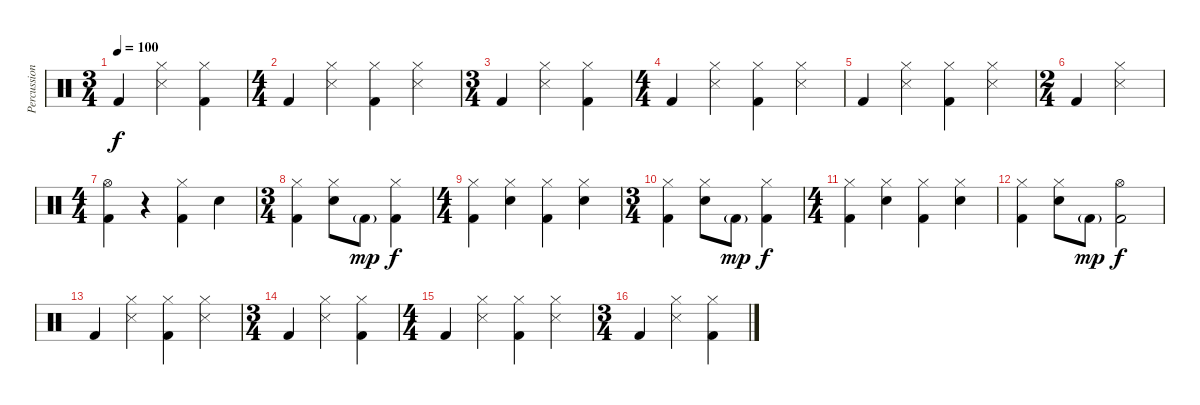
\track ("Percussion" "Percussion") {instrument percussion}
\staff {score}
\articulation defaults
\ts (3 4)
\tempo 100
\clef neutral
\ks c "Kick (hit) 2".4{dy f}
("Hi-Hat (closed)" "Snare (side stick) 3").4 ("Hi-Hat (closed)" "Kick (hit) 2").4 |
\ts (4 4)
"Kick (hit) 2".4 ("Hi-Hat (closed)" "Snare (side stick) 3").4 ("Hi-Hat (closed)" "Kick (hit) 2").4 ("Hi-Hat (closed)" "Snare (side stick) 3").4 |
\ts (3 4)
"Kick (hit) 2".4 ("Hi-Hat (closed)" "Snare (side stick) 3").4 ("Hi-Hat (closed)" "Kick (hit) 2").4 |
\ts (4 4)
"Kick (hit) 2".4 ("Hi-Hat (closed)" "Snare (side stick) 3").4 ("Hi-Hat (closed)" "Kick (hit) 2").4 ("Hi-Hat (closed)" "Snare (side stick) 3").4 |
"Kick (hit) 2".4 ("Hi-Hat (closed)" "Snare (side stick) 3").4 ("Hi-Hat (closed)" "Kick (hit) 2").4 ("Hi-Hat (closed)" "Snare (side stick) 3").4 |
\ts (2 4)
"Kick (hit) 2".4 ("Hi-Hat (closed)" "Snare (side stick) 3").4 |
\ts (4 4)
("Hi-Hat (open)" "Kick (hit) 2").4 r.4 ("Hi-Hat (closed)" "Kick (hit) 2").4 "Snare (hit) 2".4 |
\ts (3 4)
("Hi-Hat (closed)" "Kick (hit) 2").4 ("Hi-Hat (closed)" "Snare (hit) 2").8 "Kick (hit) 2"{g}.8{dy mp} ("Hi-Hat (closed)" "Kick (hit) 2").4{dy f} |
\ts (4 4)
("Hi-Hat (closed)" "Kick (hit) 2").4 ("Hi-Hat (closed)" "Snare (hit) 2").4 ("Hi-Hat (closed)" "Kick (hit) 2").4 ("Hi-Hat (closed)" "Snare (hit) 2").4 |
\ts (3 4)
("Hi-Hat (closed)" "Kick (hit) 2").4 ("Hi-Hat (closed)" "Snare (hit) 2").8 "Kick (hit) 2"{g}.8{dy mp} ("Hi-Hat (closed)" "Kick (hit) 2").4{dy f} |
\ts (4 4)
("Hi-Hat (closed)" "Kick (hit) 2").4 ("Hi-Hat (closed)" "Snare (hit) 2").4 ("Hi-Hat (closed)" "Kick (hit) 2").4 ("Hi-Hat (closed)" "Snare (hit) 2").4 |
("Hi-Hat (closed)" "Kick (hit) 2").4 ("Hi-Hat (closed)" "Snare (hit) 2").8 "Kick (hit) 2"{g}.8{dy mp} ("Hi-Hat (open)" "Kick (hit) 2").2{dy f} |
"Kick (hit) 2".4 ("Hi-Hat (closed)" "Snare (side stick) 3").4 ("Hi-Hat (closed)" "Kick (hit) 2").4 ("Hi-Hat (closed)" "Snare (side stick) 3").4 |
\ts (3 4)
"Kick (hit) 2".4 ("Hi-Hat (closed)" "Snare (side stick) 3").4 ("Hi-Hat (closed)" "Kick (hit) 2").4 |
\ts (4 4)
"Kick (hit) 2".4 ("Hi-Hat (closed)" "Snare (side stick) 3").4 ("Hi-Hat (closed)" "Kick (hit) 2").4 ("Hi-Hat (closed)" "Snare (side stick) 3").4 |
\ts (3 4)
"Kick (hit) 2".4 ("Hi-Hat (closed)" "Snare (side stick) 3").4 ("Hi-Hat (closed)" "Kick (hit) 2").4
